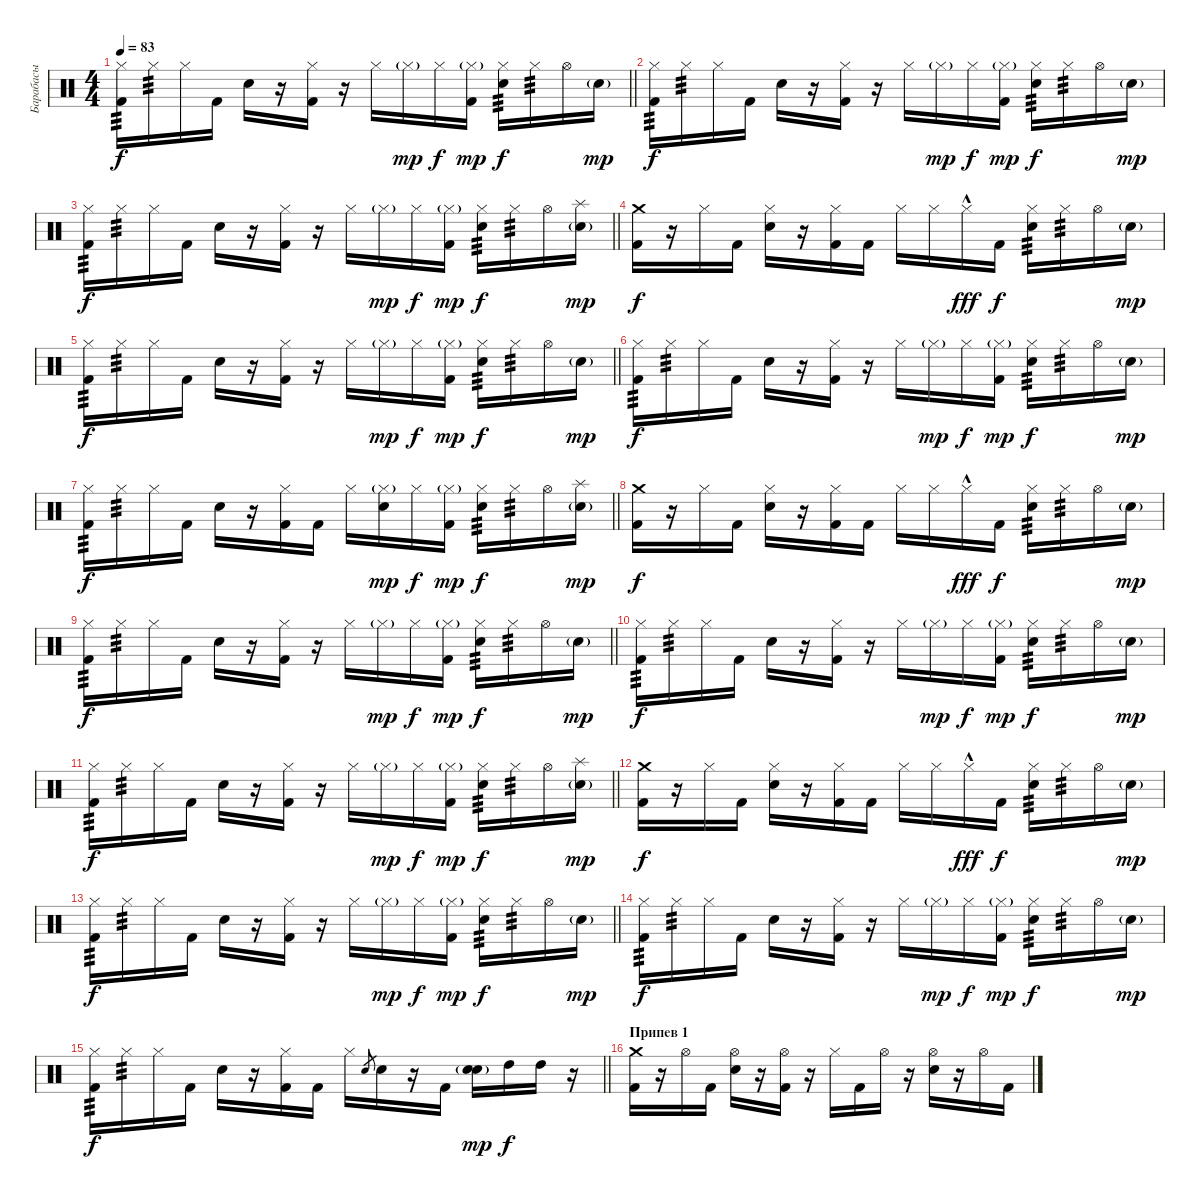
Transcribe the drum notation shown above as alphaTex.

\track ("Барабасы" "Барабасы") {instrument percussion}
\staff {score}
\articulation defaults
\ts (4 4)
\tempo 83
\clef neutral
\barLineRight lightlight
\ks c
("Kick (hit) 2" "Hi-Hat (closed)").16{tp 3 dy f} "Hi-Hat (closed)".16{tp 3} "Hi-Hat (closed)".16 "Kick (hit) 2".16 "Electric Snare (hit)".16 r.16 ("Kick (hit) 2" "Hi-Hat (closed)").16 r.16 "Hi-Hat (closed)".16 "Hi-Hat (closed)"{g}.16{dy mp} "Hi-Hat (closed)".16{dy f} ("Kick (hit) 2" "Hi-Hat (closed)"{g}).16{dy mp} ("Electric Snare (hit)" "Hi-Hat (closed)").16{tp 3 dy f} "Hi-Hat (closed)".16{tp 3} "Hi-Hat (open)".16 "Electric Snare (hit)"{g}.16{dy mp} |
("Kick (hit) 2" "Hi-Hat (closed)").16{tp 3 dy f} "Hi-Hat (closed)".16{tp 3} "Hi-Hat (closed)".16 "Kick (hit) 2".16 "Electric Snare (hit)".16 r.16 ("Kick (hit) 2" "Hi-Hat (closed)").16 r.16 "Hi-Hat (closed)".16 "Hi-Hat (closed)"{g}.16{dy mp} "Hi-Hat (closed)".16{dy f} ("Kick (hit) 2" "Hi-Hat (closed)"{g}).16{dy mp} ("Electric Snare (hit)" "Hi-Hat (closed)").16{tp 3 dy f} "Hi-Hat (closed)".16{tp 3} "Hi-Hat (open)".16 "Electric Snare (hit)"{g}.16{dy mp} |
\barLineRight lightlight
("Kick (hit) 2" "Hi-Hat (closed)").16{tp 3 dy f} "Hi-Hat (closed)".16{tp 3} "Hi-Hat (closed)".16 "Kick (hit) 2".16 "Electric Snare (hit)".16 r.16 ("Kick (hit) 2" "Hi-Hat (closed)").16 r.16 "Hi-Hat (closed)".16 "Hi-Hat (closed)"{g}.16{dy mp} "Hi-Hat (closed)".16{dy f} ("Kick (hit) 2" "Hi-Hat (closed)"{g}).16{dy mp} ("Electric Snare (hit)" "Hi-Hat (closed)").16{tp 3 dy f} "Hi-Hat (closed)".16{tp 3} "Hi-Hat (open)".16 ("Electric Snare (hit)"{g} "Splash (hit)").16{dy mp} |
("Kick (hit) 2" "Crash medium (hit)").16{dy f} r.16 "Hi-Hat (closed)".16 "Kick (hit) 2".16 ("Electric Snare (hit)" "Hi-Hat (closed)").16 r.16 ("Kick (hit) 2" "Hi-Hat (closed)").16 "Kick (hit) 2".16 "Hi-Hat (closed)".16 "Hi-Hat (closed)".16 "Hi-Hat (closed)"{hac}.16{dy fff} "Kick (hit) 2".16{dy f} ("Electric Snare (hit)" "Hi-Hat (closed)").16{tp 3} "Hi-Hat (closed)".16{tp 3} "Hi-Hat (open)".16 "Electric Snare (hit)"{g}.16{dy mp} |
\barLineRight lightlight
("Kick (hit) 2" "Hi-Hat (closed)").16{tp 3 dy f} "Hi-Hat (closed)".16{tp 3} "Hi-Hat (closed)".16 "Kick (hit) 2".16 "Electric Snare (hit)".16 r.16 ("Kick (hit) 2" "Hi-Hat (closed)").16 r.16 "Hi-Hat (closed)".16 "Hi-Hat (closed)"{g}.16{dy mp} "Hi-Hat (closed)".16{dy f} ("Kick (hit) 2" "Hi-Hat (closed)"{g}).16{dy mp} ("Electric Snare (hit)" "Hi-Hat (closed)").16{tp 3 dy f} "Hi-Hat (closed)".16{tp 3} "Hi-Hat (open)".16 "Electric Snare (hit)"{g}.16{dy mp} |
("Kick (hit) 2" "Hi-Hat (closed)").16{tp 3 dy f} "Hi-Hat (closed)".16{tp 3} "Hi-Hat (closed)".16 "Kick (hit) 2".16 "Electric Snare (hit)".16 r.16 ("Kick (hit) 2" "Hi-Hat (closed)").16 r.16 "Hi-Hat (closed)".16 "Hi-Hat (closed)"{g}.16{dy mp} "Hi-Hat (closed)".16{dy f} ("Kick (hit) 2" "Hi-Hat (closed)"{g}).16{dy mp} ("Electric Snare (hit)" "Hi-Hat (closed)").16{tp 3 dy f} "Hi-Hat (closed)".16{tp 3} "Hi-Hat (open)".16 "Electric Snare (hit)"{g}.16{dy mp} |
\barLineRight lightlight
("Kick (hit) 2" "Hi-Hat (closed)").16{tp 3 dy f} "Hi-Hat (closed)".16{tp 3} "Hi-Hat (closed)".16 "Kick (hit) 2".16 "Electric Snare (hit)".16 r.16 ("Kick (hit) 2" "Hi-Hat (closed)").16 "Kick (hit) 2".16 "Hi-Hat (closed)".16 ("Hi-Hat (closed)"{g} "Electric Snare (hit)").16{dy mp} "Hi-Hat (closed)".16{dy f} ("Kick (hit) 2" "Hi-Hat (closed)"{g}).16{dy mp} ("Electric Snare (hit)" "Hi-Hat (closed)").16{tp 3 dy f} "Hi-Hat (closed)".16{tp 3} "Hi-Hat (open)".16 ("Electric Snare (hit)"{g} "Splash (hit)").16{dy mp} |
\section ("" "")
("Kick (hit) 2" "Crash medium (hit)").16{dy f} r.16 "Hi-Hat (closed)".16 "Kick (hit) 2".16 ("Electric Snare (hit)" "Hi-Hat (closed)").16 r.16 ("Kick (hit) 2" "Hi-Hat (closed)").16 "Kick (hit) 2".16 "Hi-Hat (closed)".16 "Hi-Hat (closed)".16 "Hi-Hat (closed)"{hac}.16{dy fff} "Kick (hit) 2".16{dy f} ("Electric Snare (hit)" "Hi-Hat (closed)").16{tp 3} "Hi-Hat (closed)".16{tp 3} "Hi-Hat (open)".16 "Electric Snare (hit)"{g}.16{dy mp} |
\barLineRight lightlight
("Kick (hit) 2" "Hi-Hat (closed)").16{tp 3 dy f} "Hi-Hat (closed)".16{tp 3} "Hi-Hat (closed)".16 "Kick (hit) 2".16 "Electric Snare (hit)".16 r.16 ("Kick (hit) 2" "Hi-Hat (closed)").16 r.16 "Hi-Hat (closed)".16 "Hi-Hat (closed)"{g}.16{dy mp} "Hi-Hat (closed)".16{dy f} ("Kick (hit) 2" "Hi-Hat (closed)"{g}).16{dy mp} ("Electric Snare (hit)" "Hi-Hat (closed)").16{tp 3 dy f} "Hi-Hat (closed)".16{tp 3} "Hi-Hat (open)".16 "Electric Snare (hit)"{g}.16{dy mp} |
("Kick (hit) 2" "Hi-Hat (closed)").16{tp 3 dy f} "Hi-Hat (closed)".16{tp 3} "Hi-Hat (closed)".16 "Kick (hit) 2".16 "Electric Snare (hit)".16 r.16 ("Kick (hit) 2" "Hi-Hat (closed)").16 r.16 "Hi-Hat (closed)".16 "Hi-Hat (closed)"{g}.16{dy mp} "Hi-Hat (closed)".16{dy f} ("Kick (hit) 2" "Hi-Hat (closed)"{g}).16{dy mp} ("Electric Snare (hit)" "Hi-Hat (closed)").16{tp 3 dy f} "Hi-Hat (closed)".16{tp 3} "Hi-Hat (open)".16 "Electric Snare (hit)"{g}.16{dy mp} |
\barLineRight lightlight
("Kick (hit) 2" "Hi-Hat (closed)").16{tp 3 dy f} "Hi-Hat (closed)".16{tp 3} "Hi-Hat (closed)".16 "Kick (hit) 2".16 "Electric Snare (hit)".16 r.16 ("Kick (hit) 2" "Hi-Hat (closed)").16 r.16 "Hi-Hat (closed)".16 "Hi-Hat (closed)"{g}.16{dy mp} "Hi-Hat (closed)".16{dy f} ("Kick (hit) 2" "Hi-Hat (closed)"{g}).16{dy mp} ("Electric Snare (hit)" "Hi-Hat (closed)").16{tp 3 dy f} "Hi-Hat (closed)".16{tp 3} "Hi-Hat (open)".16 ("Electric Snare (hit)"{g} "Splash (hit)").16{dy mp} |
("Kick (hit) 2" "Crash medium (hit)").16{dy f} r.16 "Hi-Hat (closed)".16 "Kick (hit) 2".16 ("Electric Snare (hit)" "Hi-Hat (closed)").16 r.16 ("Kick (hit) 2" "Hi-Hat (closed)").16 "Kick (hit) 2".16 "Hi-Hat (closed)".16 "Hi-Hat (closed)".16 "Hi-Hat (closed)"{hac}.16{dy fff} "Kick (hit) 2".16{dy f} ("Electric Snare (hit)" "Hi-Hat (closed)").16{tp 3} "Hi-Hat (closed)".16{tp 3} "Hi-Hat (open)".16 "Electric Snare (hit)"{g}.16{dy mp} |
\barLineRight lightlight
("Kick (hit) 2" "Hi-Hat (closed)").16{tp 3 dy f} "Hi-Hat (closed)".16{tp 3} "Hi-Hat (closed)".16 "Kick (hit) 2".16 "Electric Snare (hit)".16 r.16 ("Kick (hit) 2" "Hi-Hat (closed)").16 r.16 "Hi-Hat (closed)".16 "Hi-Hat (closed)"{g}.16{dy mp} "Hi-Hat (closed)".16{dy f} ("Kick (hit) 2" "Hi-Hat (closed)"{g}).16{dy mp} ("Electric Snare (hit)" "Hi-Hat (closed)").16{tp 3 dy f} "Hi-Hat (closed)".16{tp 3} "Hi-Hat (open)".16 "Electric Snare (hit)"{g}.16{dy mp} |
("Kick (hit) 2" "Hi-Hat (closed)").16{tp 3 dy f} "Hi-Hat (closed)".16{tp 3} "Hi-Hat (closed)".16 "Kick (hit) 2".16 "Electric Snare (hit)".16 r.16 ("Kick (hit) 2" "Hi-Hat (closed)").16 r.16 "Hi-Hat (closed)".16 "Hi-Hat (closed)"{g}.16{dy mp} "Hi-Hat (closed)".16{dy f} ("Kick (hit) 2" "Hi-Hat (closed)"{g}).16{dy mp} ("Electric Snare (hit)" "Hi-Hat (closed)").16{tp 3 dy f} "Hi-Hat (closed)".16{tp 3} "Hi-Hat (open)".16 "Electric Snare (hit)"{g}.16{dy mp} |
\barLineRight lightlight
("Kick (hit) 2" "Hi-Hat (closed)").16{tp 3 dy f} "Hi-Hat (closed)".16{tp 3} "Hi-Hat (closed)".16 "Kick (hit) 2".16 "Electric Snare (hit)".16 r.16 ("Kick (hit) 2" "Hi-Hat (closed)").16 "Kick (hit) 2".16 "Hi-Hat (closed)".16 "Electric Snare (hit)".8{gr} "Electric Snare (hit)".16 r.16 "Kick (hit) 2".16 ("Electric Snare (hit)"{g} "Electric Snare (hit)").16{bu 60 dy mp} "High Tom (hit)".16{dy f} "High Tom (hit)".16 r.16 |
\section ("" "Припев 1")
("Crash medium (hit)" "Kick (hit) 2").16 r.16 "Hi-Hat (open)".16 "Kick (hit) 2".16 ("Electric Snare (hit)" "Hi-Hat (open)").16 r.16 ("Hi-Hat (open)" "Kick (hit) 2").16 r.16 "Hi-Hat (closed)".16 "Kick (hit) 2".16 "Hi-Hat (open)".16 r.16 ("Electric Snare (hit)" "Hi-Hat (open)").16 r.16 "Hi-Hat (open)".16 "Kick (hit) 2".16
